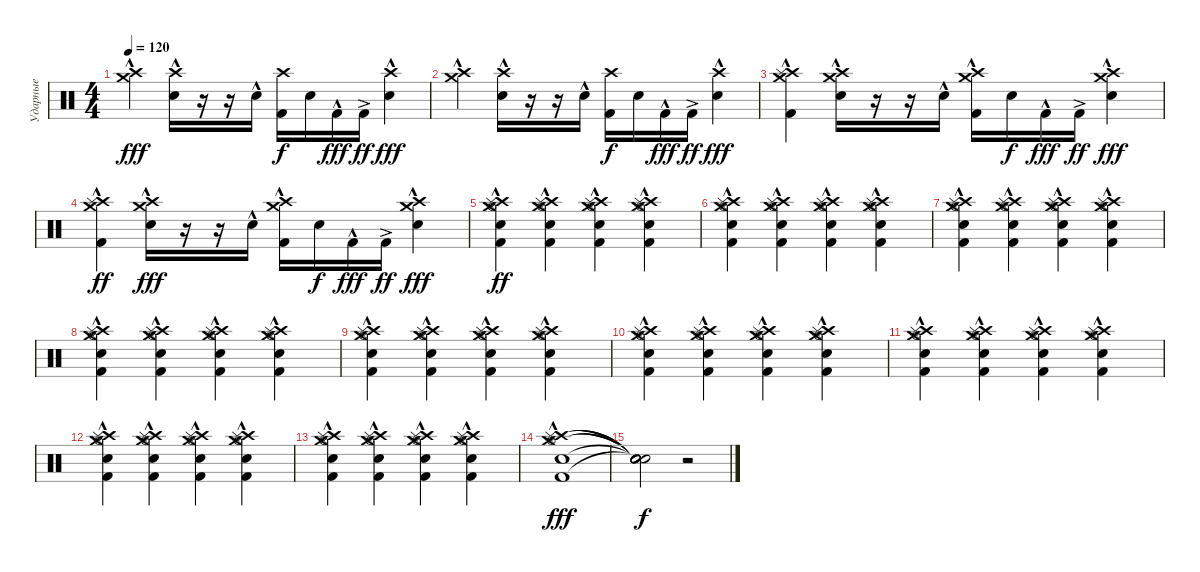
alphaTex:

\track ("Ударные" "Ударные") {instrument percussion}
\staff {score}
\articulation defaults
\ts (4 4)
\tempo 120
\clef neutral
\ks c
("Crash high (hit)" "Crash medium (hit)"{hac}).4{dy fff} ("Crash high (hit)" "Electric Snare (hit)"{hac}).16 r.16 r.16 "Electric Snare (hit)"{hac}.16 ("Crash high (hit)" "Kick (hit) 2").16{dy f} "Electric Snare (hit)".16 "Kick (hit) 2"{hac}.16{dy fff} "Kick (hit) 2"{ac}.16{dy ff} ("Crash high (hit)" "Electric Snare (hit)"{hac}).4{dy fff} |
("Crash high (hit)" "Crash medium (hit)"{hac}).4 ("Crash high (hit)" "Electric Snare (hit)"{hac}).16 r.16 r.16 "Electric Snare (hit)"{hac}.16 ("Crash high (hit)" "Kick (hit) 2").16{dy f} "Electric Snare (hit)".16 "Kick (hit) 2"{hac}.16{dy fff} "Kick (hit) 2"{ac}.16{dy ff} ("Crash high (hit)" "Electric Snare (hit)"{hac}).4{dy fff} |
("Crash high (hit)"{hac} "Crash medium (hit)"{hac} "Splash (hit)"{hac} "Kick (hit) 2"{hac}).4 ("Crash high (hit)" "Crash medium (hit)"{hac} "Electric Snare (hit)"{hac}).16 r.16 r.16 "Electric Snare (hit)"{hac}.16 ("Crash high (hit)" "Crash medium (hit)"{hac} "Kick (hit) 2").16 "Electric Snare (hit)".16{dy f} "Kick (hit) 2"{hac}.16{dy fff} "Kick (hit) 2"{ac}.16{dy ff} ("Crash high (hit)" "Crash medium (hit)"{hac} "Electric Snare (hit)"{hac}).4{dy fff} |
("Crash high (hit)"{hac} "Crash medium (hit)"{hac} "Splash (hit)"{hac} "Kick (hit) 2"{hac}).4{dy ff} ("Crash high (hit)" "Crash medium (hit)"{hac} "Electric Snare (hit)"{hac}).16{dy fff} r.16 r.16 "Electric Snare (hit)"{hac}.16 ("Crash high (hit)" "Crash medium (hit)"{hac} "Kick (hit) 2").16 "Electric Snare (hit)".16{dy f} "Kick (hit) 2"{hac}.16{dy fff} "Kick (hit) 2"{ac}.16{dy ff} ("Crash high (hit)" "Crash medium (hit)"{hac} "Electric Snare (hit)"{hac}).4{dy fff} |
("Hi-Hat (open)"{hac} "Crash high (hit)"{hac} "Crash medium (hit)"{hac} "Splash (hit)"{hac} "Electric Snare (hit)"{hac} "Kick (hit) 2"{hac}).4{dy ff} ("Hi-Hat (open)"{hac} "Crash high (hit)"{hac} "Crash medium (hit)"{hac} "Splash (hit)"{hac} "Electric Snare (hit)"{hac} "Kick (hit) 2"{hac}).4 ("Hi-Hat (open)"{hac} "Crash high (hit)"{hac} "Crash medium (hit)"{hac} "Splash (hit)"{hac} "Electric Snare (hit)"{hac} "Kick (hit) 2"{hac}).4 ("Hi-Hat (open)"{hac} "Crash high (hit)"{hac} "Crash medium (hit)"{hac} "Splash (hit)"{hac} "Electric Snare (hit)"{hac} "Kick (hit) 2"{hac}).4 |
("Hi-Hat (open)"{hac} "Crash high (hit)"{hac} "Crash medium (hit)"{hac} "Splash (hit)"{hac} "Electric Snare (hit)"{hac} "Kick (hit) 2"{hac}).4 ("Hi-Hat (open)"{hac} "Crash high (hit)"{hac} "Crash medium (hit)"{hac} "Splash (hit)"{hac} "Electric Snare (hit)"{hac} "Kick (hit) 2"{hac}).4 ("Hi-Hat (open)"{hac} "Crash high (hit)"{hac} "Crash medium (hit)"{hac} "Splash (hit)"{hac} "Electric Snare (hit)"{hac} "Kick (hit) 2"{hac}).4 ("Hi-Hat (open)"{hac} "Crash high (hit)"{hac} "Crash medium (hit)"{hac} "Splash (hit)"{hac} "Electric Snare (hit)"{hac} "Kick (hit) 2"{hac}).4 |
("Hi-Hat (open)"{hac} "Crash high (hit)"{hac} "Crash medium (hit)"{hac} "Splash (hit)"{hac} "Electric Snare (hit)"{hac} "Kick (hit) 2"{hac}).4 ("Hi-Hat (open)"{hac} "Crash high (hit)"{hac} "Crash medium (hit)"{hac} "Splash (hit)"{hac} "Electric Snare (hit)"{hac} "Kick (hit) 2"{hac}).4 ("Hi-Hat (open)"{hac} "Crash high (hit)"{hac} "Crash medium (hit)"{hac} "Splash (hit)"{hac} "Electric Snare (hit)"{hac} "Kick (hit) 2"{hac}).4 ("Hi-Hat (open)"{hac} "Crash high (hit)"{hac} "Crash medium (hit)"{hac} "Splash (hit)"{hac} "Electric Snare (hit)"{hac} "Kick (hit) 2"{hac}).4 |
("Hi-Hat (open)"{hac} "Crash high (hit)"{hac} "Crash medium (hit)"{hac} "Splash (hit)"{hac} "Electric Snare (hit)"{hac} "Kick (hit) 2"{hac}).4 ("Hi-Hat (open)"{hac} "Crash high (hit)"{hac} "Crash medium (hit)"{hac} "Splash (hit)"{hac} "Electric Snare (hit)"{hac} "Kick (hit) 2"{hac}).4 ("Hi-Hat (open)"{hac} "Crash high (hit)"{hac} "Crash medium (hit)"{hac} "Splash (hit)"{hac} "Electric Snare (hit)"{hac} "Kick (hit) 2"{hac}).4 ("Hi-Hat (open)"{hac} "Crash high (hit)"{hac} "Crash medium (hit)"{hac} "Splash (hit)"{hac} "Electric Snare (hit)"{hac} "Kick (hit) 2"{hac}).4 |
("Hi-Hat (open)"{hac} "Crash high (hit)"{hac} "Crash medium (hit)"{hac} "Splash (hit)"{hac} "Electric Snare (hit)"{hac} "Kick (hit) 2"{hac}).4 ("Hi-Hat (open)"{hac} "Crash high (hit)"{hac} "Crash medium (hit)"{hac} "Splash (hit)"{hac} "Electric Snare (hit)"{hac} "Kick (hit) 2"{hac}).4 ("Hi-Hat (open)"{hac} "Crash high (hit)"{hac} "Crash medium (hit)"{hac} "Splash (hit)"{hac} "Electric Snare (hit)"{hac} "Kick (hit) 2"{hac}).4 ("Hi-Hat (open)"{hac} "Crash high (hit)"{hac} "Crash medium (hit)"{hac} "Splash (hit)"{hac} "Electric Snare (hit)"{hac} "Kick (hit) 2"{hac}).4 |
("Hi-Hat (open)"{hac} "Crash high (hit)"{hac} "Crash medium (hit)"{hac} "Splash (hit)"{hac} "Electric Snare (hit)"{hac} "Kick (hit) 2"{hac}).4 ("Hi-Hat (open)"{hac} "Crash high (hit)"{hac} "Crash medium (hit)"{hac} "Splash (hit)"{hac} "Electric Snare (hit)"{hac} "Kick (hit) 2"{hac}).4 ("Hi-Hat (open)"{hac} "Crash high (hit)"{hac} "Crash medium (hit)"{hac} "Splash (hit)"{hac} "Electric Snare (hit)"{hac} "Kick (hit) 2"{hac}).4 ("Hi-Hat (open)"{hac} "Crash high (hit)"{hac} "Crash medium (hit)"{hac} "Splash (hit)"{hac} "Electric Snare (hit)"{hac} "Kick (hit) 2"{hac}).4 |
("Hi-Hat (open)"{hac} "Crash high (hit)"{hac} "Crash medium (hit)"{hac} "Splash (hit)"{hac} "Electric Snare (hit)"{hac} "Kick (hit) 2"{hac}).4 ("Hi-Hat (open)"{hac} "Crash high (hit)"{hac} "Crash medium (hit)"{hac} "Splash (hit)"{hac} "Electric Snare (hit)"{hac} "Kick (hit) 2"{hac}).4 ("Hi-Hat (open)"{hac} "Crash high (hit)"{hac} "Crash medium (hit)"{hac} "Splash (hit)"{hac} "Electric Snare (hit)"{hac} "Kick (hit) 2"{hac}).4 ("Hi-Hat (open)"{hac} "Crash high (hit)"{hac} "Crash medium (hit)"{hac} "Splash (hit)"{hac} "Electric Snare (hit)"{hac} "Kick (hit) 2"{hac}).4 |
("Hi-Hat (open)"{hac} "Crash high (hit)"{hac} "Crash medium (hit)"{hac} "Splash (hit)"{hac} "Electric Snare (hit)"{hac} "Kick (hit) 2"{hac}).4 ("Hi-Hat (open)"{hac} "Crash high (hit)"{hac} "Crash medium (hit)"{hac} "Splash (hit)"{hac} "Electric Snare (hit)"{hac} "Kick (hit) 2"{hac}).4 ("Hi-Hat (open)"{hac} "Crash high (hit)"{hac} "Crash medium (hit)"{hac} "Splash (hit)"{hac} "Electric Snare (hit)"{hac} "Kick (hit) 2"{hac}).4 ("Hi-Hat (open)"{hac} "Crash high (hit)"{hac} "Crash medium (hit)"{hac} "Splash (hit)"{hac} "Electric Snare (hit)"{hac} "Kick (hit) 2"{hac}).4 |
("Hi-Hat (open)"{hac} "Crash high (hit)"{hac} "Crash medium (hit)"{hac} "Splash (hit)"{hac} "Electric Snare (hit)"{hac} "Kick (hit) 2"{hac}).4 ("Hi-Hat (open)"{hac} "Crash high (hit)"{hac} "Crash medium (hit)"{hac} "Splash (hit)"{hac} "Electric Snare (hit)"{hac} "Kick (hit) 2"{hac}).4 ("Hi-Hat (open)"{hac} "Crash high (hit)"{hac} "Crash medium (hit)"{hac} "Splash (hit)"{hac} "Electric Snare (hit)"{hac} "Kick (hit) 2"{hac}).4 ("Hi-Hat (open)"{hac} "Crash high (hit)"{hac} "Crash medium (hit)"{hac} "Splash (hit)"{hac} "Electric Snare (hit)"{hac} "Kick (hit) 2"{hac}).4 |
("Hi-Hat (open)"{hac} "Crash high (hit)"{hac} "Crash medium (hit)"{hac} "Splash (hit)"{hac} "Electric Snare (hit)"{hac} "Kick (hit) 2"{hac}).1{dy fff} |
("Snare (hit)"{t} "Snare (hit)"{t} "Snare (hit)"{t} "Snare (hit)"{t} "Snare (hit)"{t} "Snare (hit)"{t}).2{dy f} r.2
